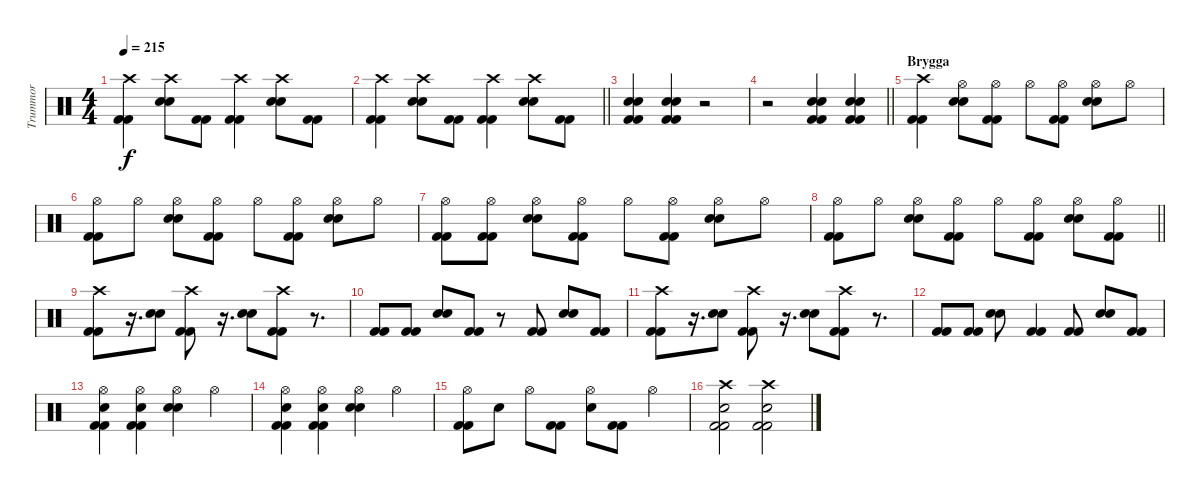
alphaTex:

\track ("Trummor" "Trummor") {instrument percussion}
\staff {score}
\articulation defaults
\ts (4 4)
\tempo 215
\clef neutral
\ks c
("Crash high (hit)" "Kick (hit) 2" "Kick (hit) 2").4{dy f} ("Crash high (hit)" "Electric Snare (hit)" "Electric Snare (hit)").8 ("Kick (hit) 2" "Kick (hit) 2").8 ("Crash high (hit)" "Kick (hit) 2" "Kick (hit) 2").4 ("Crash high (hit)" "Electric Snare (hit)" "Electric Snare (hit)").8 ("Kick (hit) 2" "Kick (hit) 2").8 |
\barLineRight lightlight
("Crash high (hit)" "Kick (hit) 2" "Kick (hit) 2").4 ("Crash high (hit)" "Electric Snare (hit)" "Electric Snare (hit)").8 ("Kick (hit) 2" "Kick (hit) 2").8 ("Crash high (hit)" "Kick (hit) 2" "Kick (hit) 2").4 ("Crash high (hit)" "Electric Snare (hit)" "Electric Snare (hit)").8 ("Kick (hit) 2" "Kick (hit) 2").8 |
("Electric Snare (hit)" "Electric Snare (hit)" "Kick (hit) 2" "Kick (hit) 2").4 ("Electric Snare (hit)" "Electric Snare (hit)" "Kick (hit) 2" "Kick (hit) 2").4 r.2 |
\barLineRight lightlight
r.2 ("Electric Snare (hit)" "Electric Snare (hit)" "Kick (hit) 2" "Kick (hit) 2").4 ("Electric Snare (hit)" "Electric Snare (hit)" "Kick (hit) 2" "Kick (hit) 2").4 |
\section ("" "Brygga")
("Crash high (hit)" "Kick (hit) 2" "Kick (hit) 2").4 ("Hi-Hat (open)" "Electric Snare (hit)" "Electric Snare (hit)").8 ("Hi-Hat (open)" "Kick (hit) 2" "Kick (hit) 2").8 "Hi-Hat (open)".8 ("Hi-Hat (open)" "Kick (hit) 2" "Kick (hit) 2").8 ("Hi-Hat (open)" "Electric Snare (hit)" "Electric Snare (hit)").8 "Hi-Hat (open)".8 |
("Hi-Hat (open)" "Kick (hit) 2" "Kick (hit) 2").8 "Hi-Hat (open)".8 ("Hi-Hat (open)" "Electric Snare (hit)" "Electric Snare (hit)").8 ("Hi-Hat (open)" "Kick (hit) 2" "Kick (hit) 2").8 "Hi-Hat (open)".8 ("Hi-Hat (open)" "Kick (hit) 2" "Kick (hit) 2").8 ("Hi-Hat (open)" "Electric Snare (hit)" "Electric Snare (hit)").8 "Hi-Hat (open)".8 |
("Hi-Hat (open)" "Kick (hit) 2" "Kick (hit) 2").8 ("Hi-Hat (open)" "Kick (hit) 2" "Kick (hit) 2").8 ("Hi-Hat (open)" "Electric Snare (hit)" "Electric Snare (hit)").8 ("Hi-Hat (open)" "Kick (hit) 2" "Kick (hit) 2").8 "Hi-Hat (open)".8 ("Hi-Hat (open)" "Kick (hit) 2" "Kick (hit) 2").8 ("Hi-Hat (open)" "Electric Snare (hit)" "Electric Snare (hit)").8 "Hi-Hat (open)".8 |
\barLineRight lightlight
("Hi-Hat (open)" "Kick (hit) 2" "Kick (hit) 2").8 "Hi-Hat (open)".8 ("Hi-Hat (open)" "Electric Snare (hit)" "Electric Snare (hit)").8 ("Hi-Hat (open)" "Kick (hit) 2" "Kick (hit) 2").8 "Hi-Hat (open)".8 ("Hi-Hat (open)" "Kick (hit) 2" "Kick (hit) 2").8 ("Hi-Hat (open)" "Electric Snare (hit)" "Electric Snare (hit)").8 ("Hi-Hat (open)" "Kick (hit) 2" "Kick (hit) 2").8 |
("Crash high (hit)" "Kick (hit) 2" "Kick (hit) 2").8 r.16{d} ("Electric Snare (hit)" "Electric Snare (hit)").8 ("Crash high (hit)" "Kick (hit) 2" "Kick (hit) 2").8 r.16{d} ("Electric Snare (hit)" "Electric Snare (hit)").8 ("Crash high (hit)" "Kick (hit) 2" "Kick (hit) 2").8 r.8{d} |
("Kick (hit) 2" "Kick (hit) 2").8 ("Kick (hit) 2" "Kick (hit) 2").8 ("Electric Snare (hit)" "Electric Snare (hit)").8 ("Kick (hit) 2" "Kick (hit) 2").8 r.8 ("Kick (hit) 2" "Kick (hit) 2").8 ("Electric Snare (hit)" "Electric Snare (hit)").8 ("Kick (hit) 2" "Kick (hit) 2").8 |
("Crash high (hit)" "Kick (hit) 2" "Kick (hit) 2").8 r.16{d} ("Electric Snare (hit)" "Electric Snare (hit)").8 ("Crash high (hit)" "Kick (hit) 2" "Kick (hit) 2").8 r.16{d} ("Electric Snare (hit)" "Electric Snare (hit)").8 ("Crash high (hit)" "Kick (hit) 2" "Kick (hit) 2").8 r.8{d} |
("Kick (hit) 2" "Kick (hit) 2").8 ("Kick (hit) 2" "Kick (hit) 2").8 ("Electric Snare (hit)" "Electric Snare (hit)").8 ("Kick (hit) 2" "Kick (hit) 2").4 ("Kick (hit) 2" "Kick (hit) 2").8 ("Electric Snare (hit)" "Electric Snare (hit)").8 ("Kick (hit) 2" "Kick (hit) 2").8 |
("Hi-Hat (open)" "Electric Snare (hit)" "Kick (hit) 2" "Kick (hit) 2").4 ("Hi-Hat (open)" "Electric Snare (hit)" "Kick (hit) 2" "Kick (hit) 2").4 ("Hi-Hat (open)" "Electric Snare (hit)" "Electric Snare (hit)").4 "Hi-Hat (open)".4 |
("Hi-Hat (open)" "Electric Snare (hit)" "Kick (hit) 2" "Kick (hit) 2").4 ("Hi-Hat (open)" "Electric Snare (hit)" "Kick (hit) 2" "Kick (hit) 2").4 ("Hi-Hat (open)" "Electric Snare (hit)" "Electric Snare (hit)").4 "Hi-Hat (open)".4 |
("Hi-Hat (open)" "Kick (hit) 2" "Kick (hit) 2").8 "Electric Snare (hit)".8 "Hi-Hat (open)".8 ("Kick (hit) 2" "Kick (hit) 2").8 ("Hi-Hat (open)" "Electric Snare (hit)").8 ("Kick (hit) 2" "Kick (hit) 2").8 "Hi-Hat (open)".4 |
("Crash high (hit)" "Electric Snare (hit)" "Kick (hit) 2" "Kick (hit) 2").2 ("Crash high (hit)" "Electric Snare (hit)" "Kick (hit) 2" "Kick (hit) 2").2
